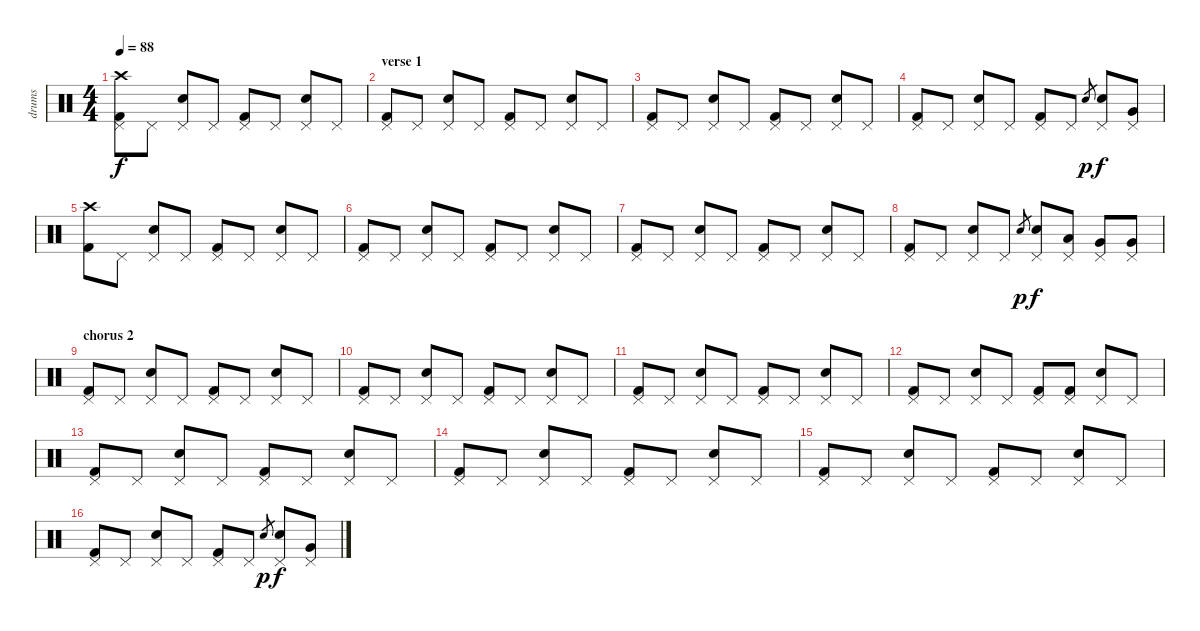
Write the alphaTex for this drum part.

\track ("drums" "drums") {instrument percussion}
\staff {score}
\articulation defaults
\ts (4 4)
\tempo 88
\clef neutral
\ks c
("Kick (hit) 2" "Pedal Hi-Hat (hit)" "Crash high (hit)").8{dy f} "Pedal Hi-Hat (hit)".8 ("Electric Snare (hit)" "Pedal Hi-Hat (hit)").8 "Pedal Hi-Hat (hit)".8 ("Kick (hit) 2" "Pedal Hi-Hat (hit)").8 "Pedal Hi-Hat (hit)".8 ("Electric Snare (hit)" "Pedal Hi-Hat (hit)").8 "Pedal Hi-Hat (hit)".8 |
\section ("" "verse 1")
("Kick (hit) 2" "Pedal Hi-Hat (hit)").8 "Pedal Hi-Hat (hit)".8 ("Electric Snare (hit)" "Pedal Hi-Hat (hit)").8 "Pedal Hi-Hat (hit)".8 ("Kick (hit) 2" "Pedal Hi-Hat (hit)").8 "Pedal Hi-Hat (hit)".8 ("Electric Snare (hit)" "Pedal Hi-Hat (hit)").8 "Pedal Hi-Hat (hit)".8 |
("Kick (hit) 2" "Pedal Hi-Hat (hit)").8 "Pedal Hi-Hat (hit)".8 ("Electric Snare (hit)" "Pedal Hi-Hat (hit)").8 "Pedal Hi-Hat (hit)".8 ("Kick (hit) 2" "Pedal Hi-Hat (hit)").8 "Pedal Hi-Hat (hit)".8 ("Electric Snare (hit)" "Pedal Hi-Hat (hit)").8 "Pedal Hi-Hat (hit)".8 |
("Kick (hit) 2" "Pedal Hi-Hat (hit)").8 "Pedal Hi-Hat (hit)".8 ("Electric Snare (hit)" "Pedal Hi-Hat (hit)").8 "Pedal Hi-Hat (hit)".8 ("Kick (hit) 2" "Pedal Hi-Hat (hit)").8 "Pedal Hi-Hat (hit)".8 "Electric Snare (hit)".8{gr dy p} ("Electric Snare (hit)" "Pedal Hi-Hat (hit)").8{dy f} ("Very Low Tom (hit)" "Pedal Hi-Hat (hit)").8 |
("Kick (hit) 2" "Crash high (hit)").8 "Pedal Hi-Hat (hit)".8 ("Electric Snare (hit)" "Pedal Hi-Hat (hit)").8 "Pedal Hi-Hat (hit)".8 ("Kick (hit) 2" "Pedal Hi-Hat (hit)").8 "Pedal Hi-Hat (hit)".8 ("Electric Snare (hit)" "Pedal Hi-Hat (hit)").8 "Pedal Hi-Hat (hit)".8 |
("Kick (hit) 2" "Pedal Hi-Hat (hit)").8 "Pedal Hi-Hat (hit)".8 ("Electric Snare (hit)" "Pedal Hi-Hat (hit)").8 "Pedal Hi-Hat (hit)".8 ("Kick (hit) 2" "Pedal Hi-Hat (hit)").8 "Pedal Hi-Hat (hit)".8 ("Electric Snare (hit)" "Pedal Hi-Hat (hit)").8 "Pedal Hi-Hat (hit)".8 |
("Kick (hit) 2" "Pedal Hi-Hat (hit)").8 "Pedal Hi-Hat (hit)".8 ("Electric Snare (hit)" "Pedal Hi-Hat (hit)").8 "Pedal Hi-Hat (hit)".8 ("Kick (hit) 2" "Pedal Hi-Hat (hit)").8 "Pedal Hi-Hat (hit)".8 ("Electric Snare (hit)" "Pedal Hi-Hat (hit)").8 "Pedal Hi-Hat (hit)".8 |
("Kick (hit) 2" "Pedal Hi-Hat (hit)").8 "Pedal Hi-Hat (hit)".8 ("Electric Snare (hit)" "Pedal Hi-Hat (hit)").8 "Pedal Hi-Hat (hit)".8 "Electric Snare (hit)".8{gr dy p} ("Electric Snare (hit)" "Pedal Hi-Hat (hit)").8{dy f} ("Low Tom (hit)" "Pedal Hi-Hat (hit)").8 ("Very Low Tom (hit)" "Pedal Hi-Hat (hit)").8 ("Very Low Tom (hit)" "Pedal Hi-Hat (hit)").8 |
\section ("" "chorus 2")
("Kick (hit) 2" "Pedal Hi-Hat (hit)").8 "Pedal Hi-Hat (hit)".8 ("Electric Snare (hit)" "Pedal Hi-Hat (hit)").8 "Pedal Hi-Hat (hit)".8 ("Kick (hit) 2" "Pedal Hi-Hat (hit)").8 "Pedal Hi-Hat (hit)".8 ("Electric Snare (hit)" "Pedal Hi-Hat (hit)").8 "Pedal Hi-Hat (hit)".8 |
("Kick (hit) 2" "Pedal Hi-Hat (hit)").8 "Pedal Hi-Hat (hit)".8 ("Electric Snare (hit)" "Pedal Hi-Hat (hit)").8 "Pedal Hi-Hat (hit)".8 ("Kick (hit) 2" "Pedal Hi-Hat (hit)").8 "Pedal Hi-Hat (hit)".8 ("Electric Snare (hit)" "Pedal Hi-Hat (hit)").8 "Pedal Hi-Hat (hit)".8 |
("Kick (hit) 2" "Pedal Hi-Hat (hit)").8 "Pedal Hi-Hat (hit)".8 ("Electric Snare (hit)" "Pedal Hi-Hat (hit)").8 "Pedal Hi-Hat (hit)".8 ("Kick (hit) 2" "Pedal Hi-Hat (hit)").8 "Pedal Hi-Hat (hit)".8 ("Electric Snare (hit)" "Pedal Hi-Hat (hit)").8 "Pedal Hi-Hat (hit)".8 |
("Kick (hit) 2" "Pedal Hi-Hat (hit)").8 "Pedal Hi-Hat (hit)".8 ("Electric Snare (hit)" "Pedal Hi-Hat (hit)").8 "Pedal Hi-Hat (hit)".8 ("Kick (hit) 2" "Pedal Hi-Hat (hit)").8 ("Kick (hit) 2" "Pedal Hi-Hat (hit)").8 ("Electric Snare (hit)" "Pedal Hi-Hat (hit)").8 "Pedal Hi-Hat (hit)".8 |
("Kick (hit) 2" "Pedal Hi-Hat (hit)").8 "Pedal Hi-Hat (hit)".8 ("Electric Snare (hit)" "Pedal Hi-Hat (hit)").8 "Pedal Hi-Hat (hit)".8 ("Kick (hit) 2" "Pedal Hi-Hat (hit)").8 "Pedal Hi-Hat (hit)".8 ("Electric Snare (hit)" "Pedal Hi-Hat (hit)").8 "Pedal Hi-Hat (hit)".8 |
("Kick (hit) 2" "Pedal Hi-Hat (hit)").8 "Pedal Hi-Hat (hit)".8 ("Electric Snare (hit)" "Pedal Hi-Hat (hit)").8 "Pedal Hi-Hat (hit)".8 ("Kick (hit) 2" "Pedal Hi-Hat (hit)").8 "Pedal Hi-Hat (hit)".8 ("Electric Snare (hit)" "Pedal Hi-Hat (hit)").8 "Pedal Hi-Hat (hit)".8 |
("Kick (hit) 2" "Pedal Hi-Hat (hit)").8 "Pedal Hi-Hat (hit)".8 ("Electric Snare (hit)" "Pedal Hi-Hat (hit)").8 "Pedal Hi-Hat (hit)".8 ("Kick (hit) 2" "Pedal Hi-Hat (hit)").8 "Pedal Hi-Hat (hit)".8 ("Electric Snare (hit)" "Pedal Hi-Hat (hit)").8 "Pedal Hi-Hat (hit)".8 |
("Kick (hit) 2" "Pedal Hi-Hat (hit)").8 "Pedal Hi-Hat (hit)".8 ("Electric Snare (hit)" "Pedal Hi-Hat (hit)").8 "Pedal Hi-Hat (hit)".8 ("Kick (hit) 2" "Pedal Hi-Hat (hit)").8 "Pedal Hi-Hat (hit)".8 "Electric Snare (hit)".8{gr dy p} ("Electric Snare (hit)" "Pedal Hi-Hat (hit)").8{dy f} ("Very Low Tom (hit)" "Pedal Hi-Hat (hit)").8
